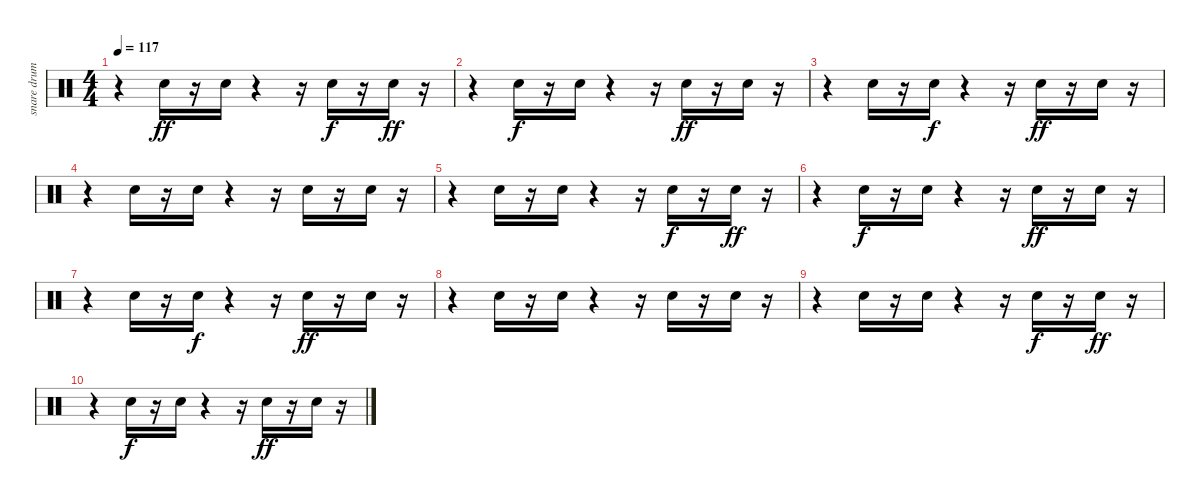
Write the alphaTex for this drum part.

\track ("snare drum" "snare drum") {instrument percussion}
\staff {score}
\articulation defaults
\ts (4 4)
\tempo 117
\clef neutral
\ks c
r.4{dy ff} "Snare (hit) 2".16 r.16 "Snare (hit) 2".16 r.4 r.16 "Snare (hit) 2".16{dy f} r.16 "Snare (hit) 2".16{dy ff} r.16 |
r.4 "Snare (hit) 2".16{dy f} r.16 "Snare (hit) 2".16 r.4 r.16 "Snare (hit) 2".16{dy ff} r.16 "Snare (hit) 2".16 r.16 |
r.4 "Snare (hit) 2".16 r.16 "Snare (hit) 2".16{dy f} r.4 r.16 "Snare (hit) 2".16{dy ff} r.16 "Snare (hit) 2".16 r.16 |
r.4 "Snare (hit) 2".16 r.16 "Snare (hit) 2".16 r.4 r.16 "Snare (hit) 2".16 r.16 "Snare (hit) 2".16 r.16 |
r.4 "Snare (hit) 2".16 r.16 "Snare (hit) 2".16 r.4 r.16 "Snare (hit) 2".16{dy f} r.16 "Snare (hit) 2".16{dy ff} r.16 |
r.4 "Snare (hit) 2".16{dy f} r.16 "Snare (hit) 2".16 r.4 r.16 "Snare (hit) 2".16{dy ff} r.16 "Snare (hit) 2".16 r.16 |
r.4 "Snare (hit) 2".16 r.16 "Snare (hit) 2".16{dy f} r.4 r.16 "Snare (hit) 2".16{dy ff} r.16 "Snare (hit) 2".16 r.16 |
r.4 "Snare (hit) 2".16 r.16 "Snare (hit) 2".16 r.4 r.16 "Snare (hit) 2".16 r.16 "Snare (hit) 2".16 r.16 |
r.4 "Snare (hit) 2".16 r.16 "Snare (hit) 2".16 r.4 r.16 "Snare (hit) 2".16{dy f} r.16 "Snare (hit) 2".16{dy ff} r.16 |
r.4 "Snare (hit) 2".16{dy f} r.16 "Snare (hit) 2".16 r.4 r.16 "Snare (hit) 2".16{dy ff} r.16 "Snare (hit) 2".16 r.16
